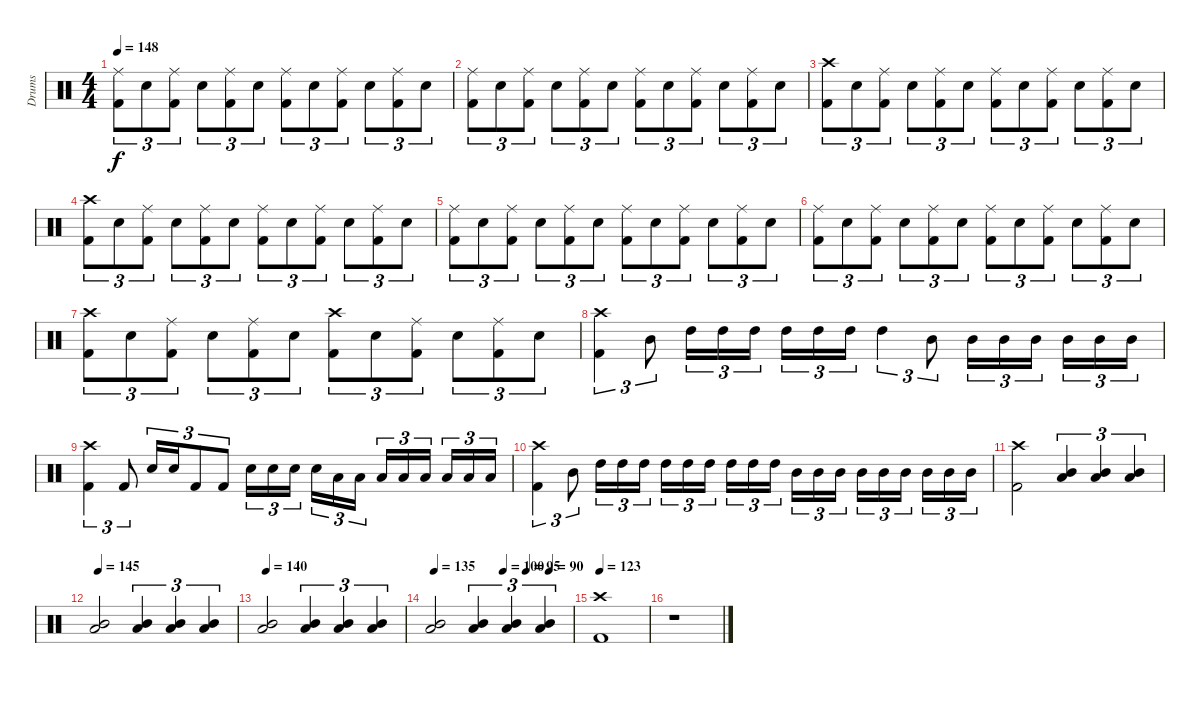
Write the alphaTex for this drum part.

\track ("Drums" "Drums") {instrument percussion}
\staff {score}
\articulation defaults
\ts (4 4)
\tempo 148
\clef neutral
\ks c
("Ride (middle)" "Kick (hit) 2").8{tu (3 2) dy f} "Electric Snare (hit)".8{tu (3 2)} ("Ride (middle)" "Kick (hit) 2").8{tu (3 2)} "Electric Snare (hit)".8{tu (3 2)} ("Ride (middle)" "Kick (hit) 2").8{tu (3 2)} "Electric Snare (hit)".8{tu (3 2)} ("Ride (middle)" "Kick (hit) 2").8{tu (3 2)} "Electric Snare (hit)".8{tu (3 2)} ("Ride (middle)" "Kick (hit) 2").8{tu (3 2)} "Electric Snare (hit)".8{tu (3 2)} ("Ride (middle)" "Kick (hit) 2").8{tu (3 2)} "Electric Snare (hit)".8{tu (3 2)} |
("Ride (middle)" "Kick (hit) 2").8{tu (3 2)} "Electric Snare (hit)".8{tu (3 2)} ("Ride (middle)" "Kick (hit) 2").8{tu (3 2)} "Electric Snare (hit)".8{tu (3 2)} ("Ride (middle)" "Kick (hit) 2").8{tu (3 2)} "Electric Snare (hit)".8{tu (3 2)} ("Ride (middle)" "Kick (hit) 2").8{tu (3 2)} "Electric Snare (hit)".8{tu (3 2)} ("Ride (middle)" "Kick (hit) 2").8{tu (3 2)} "Electric Snare (hit)".8{tu (3 2)} ("Ride (middle)" "Kick (hit) 2").8{tu (3 2)} "Electric Snare (hit)".8{tu (3 2)} |
("Crash high (hit)" "Kick (hit) 2").8{tu (3 2)} "Electric Snare (hit)".8{tu (3 2)} ("Ride (middle)" "Kick (hit) 2").8{tu (3 2)} "Electric Snare (hit)".8{tu (3 2)} ("Ride (middle)" "Kick (hit) 2").8{tu (3 2)} "Electric Snare (hit)".8{tu (3 2)} ("Ride (middle)" "Kick (hit) 2").8{tu (3 2)} "Electric Snare (hit)".8{tu (3 2)} ("Ride (middle)" "Kick (hit) 2").8{tu (3 2)} "Electric Snare (hit)".8{tu (3 2)} ("Ride (middle)" "Kick (hit) 2").8{tu (3 2)} "Electric Snare (hit)".8{tu (3 2)} |
("Crash high (hit)" "Kick (hit) 2").8{tu (3 2)} "Electric Snare (hit)".8{tu (3 2)} ("Ride (middle)" "Kick (hit) 2").8{tu (3 2)} "Electric Snare (hit)".8{tu (3 2)} ("Ride (middle)" "Kick (hit) 2").8{tu (3 2)} "Electric Snare (hit)".8{tu (3 2)} ("Ride (middle)" "Kick (hit) 2").8{tu (3 2)} "Electric Snare (hit)".8{tu (3 2)} ("Ride (middle)" "Kick (hit) 2").8{tu (3 2)} "Electric Snare (hit)".8{tu (3 2)} ("Ride (middle)" "Kick (hit) 2").8{tu (3 2)} "Electric Snare (hit)".8{tu (3 2)} |
("Ride (middle)" "Kick (hit) 2").8{tu (3 2)} "Electric Snare (hit)".8{tu (3 2)} ("Ride (middle)" "Kick (hit) 2").8{tu (3 2)} "Electric Snare (hit)".8{tu (3 2)} ("Ride (middle)" "Kick (hit) 2").8{tu (3 2)} "Electric Snare (hit)".8{tu (3 2)} ("Ride (middle)" "Kick (hit) 2").8{tu (3 2)} "Electric Snare (hit)".8{tu (3 2)} ("Ride (middle)" "Kick (hit) 2").8{tu (3 2)} "Electric Snare (hit)".8{tu (3 2)} ("Ride (middle)" "Kick (hit) 2").8{tu (3 2)} "Electric Snare (hit)".8{tu (3 2)} |
("Ride (middle)" "Kick (hit) 2").8{tu (3 2)} "Electric Snare (hit)".8{tu (3 2)} ("Ride (middle)" "Kick (hit) 2").8{tu (3 2)} "Electric Snare (hit)".8{tu (3 2)} ("Ride (middle)" "Kick (hit) 2").8{tu (3 2)} "Electric Snare (hit)".8{tu (3 2)} ("Ride (middle)" "Kick (hit) 2").8{tu (3 2)} "Electric Snare (hit)".8{tu (3 2)} ("Ride (middle)" "Kick (hit) 2").8{tu (3 2)} "Electric Snare (hit)".8{tu (3 2)} ("Ride (middle)" "Kick (hit) 2").8{tu (3 2)} "Electric Snare (hit)".8{tu (3 2)} |
("Crash high (hit)" "Kick (hit) 2").8{tu (3 2)} "Electric Snare (hit)".8{tu (3 2)} ("Ride (middle)" "Kick (hit) 2").8{tu (3 2)} "Electric Snare (hit)".8{tu (3 2)} ("Ride (middle)" "Kick (hit) 2").8{tu (3 2)} "Electric Snare (hit)".8{tu (3 2)} ("Crash high (hit)" "Kick (hit) 2").8{tu (3 2)} "Electric Snare (hit)".8{tu (3 2)} ("Ride (middle)" "Kick (hit) 2").8{tu (3 2)} "Electric Snare (hit)".8{tu (3 2)} ("Ride (middle)" "Kick (hit) 2").8{tu (3 2)} "Electric Snare (hit)".8{tu (3 2)} |
("Crash high (hit)" "Kick (hit) 2").4{tu (3 2)} "Mid Tom (hit)".8{tu (3 2) balance 5} "High Tom (hit)".16{tu (3 2)} "High Tom (hit)".16{tu (3 2)} "High Tom (hit)".16{tu (3 2)} "High Tom (hit)".16{tu (3 2)} "High Tom (hit)".16{tu (3 2)} "High Tom (hit)".16{tu (3 2)} "High Tom (hit)".4{tu (3 2)} "Mid Tom (hit)".8{tu (3 2) balance 9} "Mid Tom (hit)".16{tu (3 2)} "Mid Tom (hit)".16{tu (3 2)} "Mid Tom (hit)".16{tu (3 2)} "Mid Tom (hit)".16{tu (3 2)} "Mid Tom (hit)".16{tu (3 2)} "Mid Tom (hit)".16{tu (3 2)} |
("Crash high (hit)" "Kick (hit) 2").4{tu (3 2) balance 8} "Kick (hit) 2".8{tu (3 2)} "Electric Snare (hit)".16{tu (3 2)} "Electric Snare (hit)".16{tu (3 2)} "Kick (hit) 2".8{tu (3 2)} "Kick (hit) 2".8{tu (3 2)} "Electric Snare (hit)".16{tu (3 2)} "Electric Snare (hit)".16{tu (3 2)} "Electric Snare (hit)".16{tu (3 2)} "Electric Snare (hit)".16{tu (3 2)} "Low Tom (hit)".16{tu (3 2)} "Low Tom (hit)".16{tu (3 2)} "Low Tom (hit)".16{tu (3 2)} "Low Floor Tom (hit)".16{tu (3 2)} "Low Floor Tom (hit)".16{tu (3 2)} "Low Floor Tom (hit)".16{tu (3 2)} "Low Floor Tom (hit)".16{tu (3 2)} "Low Floor Tom (hit)".16{tu (3 2)} |
("Crash high (hit)" "Kick (hit) 2").4{tu (3 2)} "Mid Tom (hit)".8{tu (3 2) balance 5} "High Tom (hit)".16{tu (3 2)} "High Tom (hit)".16{tu (3 2)} "High Tom (hit)".16{tu (3 2)} "High Tom (hit)".16{tu (3 2)} "High Tom (hit)".16{tu (3 2)} "High Tom (hit)".16{tu (3 2)} "High Tom (hit)".16{tu (3 2)} "High Tom (hit)".16{tu (3 2)} "High Tom (hit)".16{tu (3 2)} "Mid Tom (hit)".16{tu (3 2) balance 9} "Mid Tom (hit)".16{tu (3 2)} "Mid Tom (hit)".16{tu (3 2)} "Mid Tom (hit)".16{tu (3 2)} "Mid Tom (hit)".16{tu (3 2)} "Mid Tom (hit)".16{tu (3 2)} "Mid Tom (hit)".16{tu (3 2)} "Mid Tom (hit)".16{tu (3 2)} "Mid Tom (hit)".16{tu (3 2)} |
("Crash high (hit)" "Kick (hit) 2").2 ("Mid Tom (hit)" "Low Floor Tom (hit)").4{tu (3 2)} ("Mid Tom (hit)" "Low Floor Tom (hit)").4{tu (3 2)} ("Mid Tom (hit)" "Low Floor Tom (hit)").4{tu (3 2)} |
\tempo 145
("Mid Tom (hit)" "Low Floor Tom (hit)").2 ("Mid Tom (hit)" "Low Floor Tom (hit)").4{tu (3 2)} ("Mid Tom (hit)" "Low Floor Tom (hit)").4{tu (3 2)} ("Mid Tom (hit)" "Low Floor Tom (hit)").4{tu (3 2)} |
\tempo 140
("Mid Tom (hit)" "Low Floor Tom (hit)").2 ("Mid Tom (hit)" "Low Floor Tom (hit)").4{tu (3 2)} ("Mid Tom (hit)" "Low Floor Tom (hit)").4{tu (3 2)} ("Mid Tom (hit)" "Low Floor Tom (hit)").4{tu (3 2)} |
\tempo 135
\tempo (100 0.5)
\tempo (95 0.6666666666666666)
\tempo (90 0.8333333333333334)
("Mid Tom (hit)" "Low Floor Tom (hit)").2 ("Mid Tom (hit)" "Low Floor Tom (hit)").4{tu (3 2)} ("Mid Tom (hit)" "Low Floor Tom (hit)").4{tu (3 2)} ("Mid Tom (hit)" "Low Floor Tom (hit)").4{tu (3 2)} |
\tempo 123
("Crash high (hit)" "Kick (hit) 2").1 |
r.1
